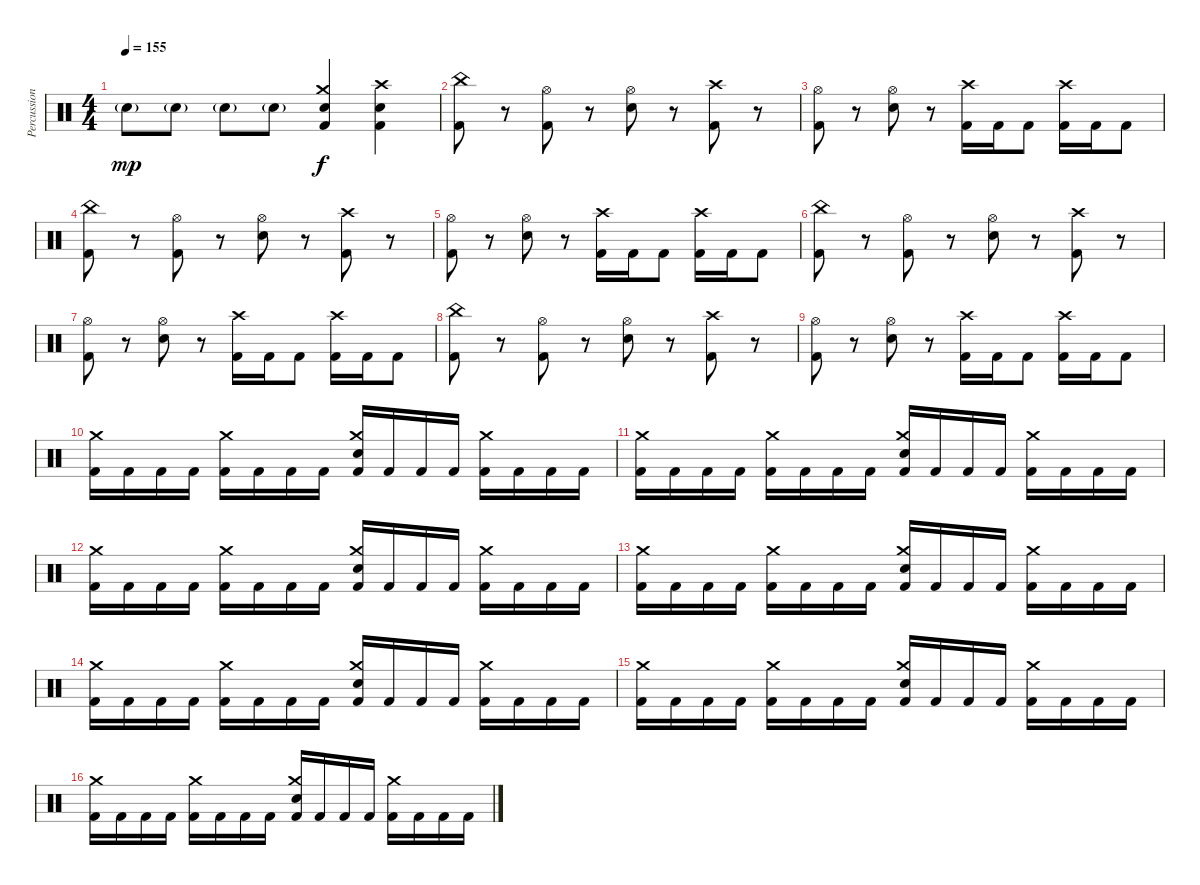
\track ("Percussion" "Percussion") {instrument percussion}
\staff {score}
\articulation defaults
\ts (4 4)
\tempo 155
\clef neutral
\ks c "Electric Snare (hit)"{g}.8{dy mp} "Electric Snare (hit)"{g}.8 "Electric Snare (hit)"{g}.8 "Electric Snare (hit)"{g}.8
("Crash medium (hit)" "Electric Snare (hit)" "Kick (hit) 2").4{dy f} ("Crash high (hit)" "Electric Snare (hit)" "Kick (hit) 2").4 |
("China (hit)" "Kick (hit) 2").8 r.8 ("Hi-Hat (open)" "Kick (hit) 2").8 r.8 ("Hi-Hat (open)" "Electric Snare (hit)").8 r.8 ("Crash high (hit)" "Kick (hit) 2").8 r.8 |
("Hi-Hat (open)" "Kick (hit) 2").8 r.8 ("Hi-Hat (open)" "Electric Snare (hit)").8 r.8 ("Crash high (hit)" "Kick (hit) 2").16 "Kick (hit) 2".16 "Kick (hit) 2".8 ("Crash high (hit)" "Kick (hit) 2").16 "Kick (hit) 2".16 "Kick (hit) 2".8 |
("China (hit)" "Kick (hit) 2").8 r.8 ("Hi-Hat (open)" "Kick (hit) 2").8 r.8 ("Hi-Hat (open)" "Electric Snare (hit)").8 r.8 ("Crash high (hit)" "Kick (hit) 2").8 r.8 |
("Hi-Hat (open)" "Kick (hit) 2").8 r.8 ("Hi-Hat (open)" "Electric Snare (hit)").8 r.8 ("Crash high (hit)" "Kick (hit) 2").16 "Kick (hit) 2".16 "Kick (hit) 2".8 ("Crash high (hit)" "Kick (hit) 2").16 "Kick (hit) 2".16 "Kick (hit) 2".8 |
("China (hit)" "Kick (hit) 2").8 r.8 ("Hi-Hat (open)" "Kick (hit) 2").8 r.8 ("Hi-Hat (open)" "Electric Snare (hit)").8 r.8 ("Crash high (hit)" "Kick (hit) 2").8 r.8 |
("Hi-Hat (open)" "Kick (hit) 2").8 r.8 ("Hi-Hat (open)" "Electric Snare (hit)").8 r.8 ("Crash high (hit)" "Kick (hit) 2").16 "Kick (hit) 2".16 "Kick (hit) 2".8 ("Crash high (hit)" "Kick (hit) 2").16 "Kick (hit) 2".16 "Kick (hit) 2".8 |
("China (hit)" "Kick (hit) 2").8 r.8 ("Hi-Hat (open)" "Kick (hit) 2").8 r.8 ("Hi-Hat (open)" "Electric Snare (hit)").8 r.8 ("Crash high (hit)" "Kick (hit) 2").8 r.8 |
("Hi-Hat (open)" "Kick (hit) 2").8 r.8 ("Hi-Hat (open)" "Electric Snare (hit)").8 r.8 ("Crash high (hit)" "Kick (hit) 2").16 "Kick (hit) 2".16 "Kick (hit) 2".8 ("Crash high (hit)" "Kick (hit) 2").16 "Kick (hit) 2".16 "Kick (hit) 2".8 |
("Crash medium (hit)" "Kick (hit) 2").16 "Kick (hit) 2".16 "Kick (hit) 2".16 "Kick (hit) 2".16 ("Crash medium (hit)" "Kick (hit) 2").16 "Kick (hit) 2".16 "Kick (hit) 2".16 "Kick (hit) 2".16 ("Crash medium (hit)" "Electric Snare (hit)" "Kick (hit) 2").16 "Kick (hit) 2".16 "Kick (hit) 2".16 "Kick (hit) 2".16 ("Crash medium (hit)" "Kick (hit) 2").16 "Kick (hit) 2".16 "Kick (hit) 2".16 "Kick (hit) 2".16 |
("Crash medium (hit)" "Kick (hit) 2").16 "Kick (hit) 2".16 "Kick (hit) 2".16 "Kick (hit) 2".16 ("Crash medium (hit)" "Kick (hit) 2").16 "Kick (hit) 2".16 "Kick (hit) 2".16 "Kick (hit) 2".16 ("Crash medium (hit)" "Electric Snare (hit)" "Kick (hit) 2").16 "Kick (hit) 2".16 "Kick (hit) 2".16 "Kick (hit) 2".16 ("Crash medium (hit)" "Kick (hit) 2").16 "Kick (hit) 2".16 "Kick (hit) 2".16 "Kick (hit) 2".16 |
("Crash medium (hit)" "Kick (hit) 2").16 "Kick (hit) 2".16 "Kick (hit) 2".16 "Kick (hit) 2".16 ("Crash medium (hit)" "Kick (hit) 2").16 "Kick (hit) 2".16 "Kick (hit) 2".16 "Kick (hit) 2".16 ("Crash medium (hit)" "Electric Snare (hit)" "Kick (hit) 2").16 "Kick (hit) 2".16 "Kick (hit) 2".16 "Kick (hit) 2".16 ("Crash medium (hit)" "Kick (hit) 2").16 "Kick (hit) 2".16 "Kick (hit) 2".16 "Kick (hit) 2".16 |
("Crash medium (hit)" "Kick (hit) 2").16 "Kick (hit) 2".16 "Kick (hit) 2".16 "Kick (hit) 2".16 ("Crash medium (hit)" "Kick (hit) 2").16 "Kick (hit) 2".16 "Kick (hit) 2".16 "Kick (hit) 2".16 ("Crash medium (hit)" "Electric Snare (hit)" "Kick (hit) 2").16 "Kick (hit) 2".16 "Kick (hit) 2".16 "Kick (hit) 2".16 ("Crash medium (hit)" "Kick (hit) 2").16 "Kick (hit) 2".16 "Kick (hit) 2".16 "Kick (hit) 2".16 |
("Crash medium (hit)" "Kick (hit) 2").16 "Kick (hit) 2".16 "Kick (hit) 2".16 "Kick (hit) 2".16 ("Crash medium (hit)" "Kick (hit) 2").16 "Kick (hit) 2".16 "Kick (hit) 2".16 "Kick (hit) 2".16 ("Crash medium (hit)" "Electric Snare (hit)" "Kick (hit) 2").16 "Kick (hit) 2".16 "Kick (hit) 2".16 "Kick (hit) 2".16 ("Crash medium (hit)" "Kick (hit) 2").16 "Kick (hit) 2".16 "Kick (hit) 2".16 "Kick (hit) 2".16 |
("Crash medium (hit)" "Kick (hit) 2").16 "Kick (hit) 2".16 "Kick (hit) 2".16 "Kick (hit) 2".16 ("Crash medium (hit)" "Kick (hit) 2").16 "Kick (hit) 2".16 "Kick (hit) 2".16 "Kick (hit) 2".16 ("Crash medium (hit)" "Electric Snare (hit)" "Kick (hit) 2").16 "Kick (hit) 2".16 "Kick (hit) 2".16 "Kick (hit) 2".16 ("Crash medium (hit)" "Kick (hit) 2").16 "Kick (hit) 2".16 "Kick (hit) 2".16 "Kick (hit) 2".16 |
("Crash medium (hit)" "Kick (hit) 2").16 "Kick (hit) 2".16 "Kick (hit) 2".16 "Kick (hit) 2".16 ("Crash medium (hit)" "Kick (hit) 2").16 "Kick (hit) 2".16 "Kick (hit) 2".16 "Kick (hit) 2".16 ("Crash medium (hit)" "Electric Snare (hit)" "Kick (hit) 2").16 "Kick (hit) 2".16 "Kick (hit) 2".16 "Kick (hit) 2".16 ("Crash medium (hit)" "Kick (hit) 2").16 "Kick (hit) 2".16 "Kick (hit) 2".16 "Kick (hit) 2".16
